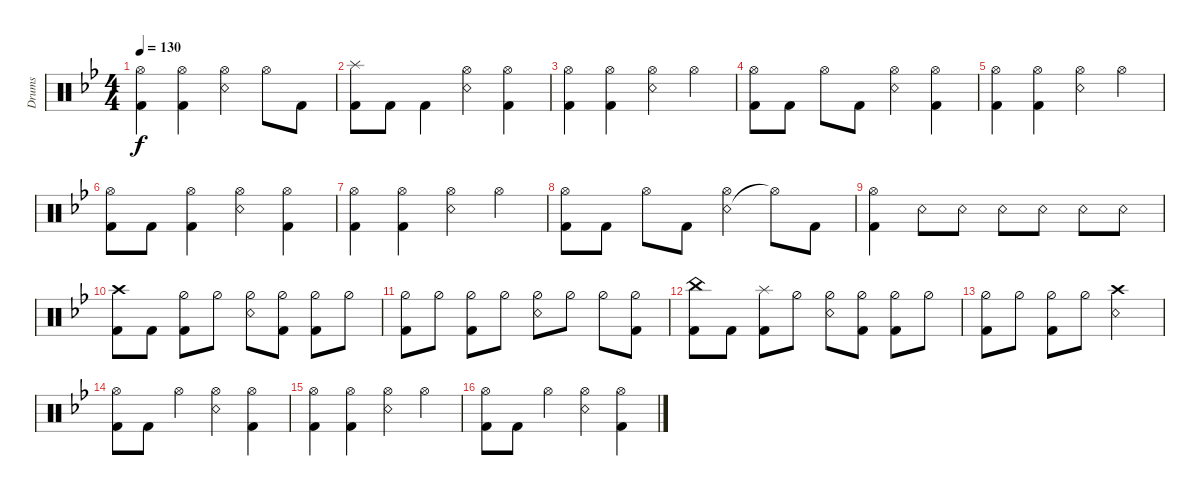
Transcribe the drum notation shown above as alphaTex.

\bracketExtendMode groupsimilarinstruments
\otherSystemsTrackNameOrientation horizontal
\track ("Schlagzeug" "Drums") {instrument percussion}
\staff {score}
\articulation defaults
\ts (4 4)
\tempo 130
\clef neutral
\ks bb
("Kick (hit) 2"{acc forcenatural} "Hi-Hat (open)"{acc forcenatural}).4{dy f beam Down} ("Kick (hit) 2"{acc forcenatural} "Hi-Hat (open)"{acc forcenatural}).4{beam Down} ("Snare (rim shot)"{acc forcenatural} "Hi-Hat (open)"{acc forcenatural}).4{beam Down} "Hi-Hat (open)"{acc forcenatural}.8{beam Down} "Kick (hit) 2"{acc forcenatural}.8{beam Down} |
("Kick (hit) 2"{acc forcenatural} "Splash (hit)"{acc forcenatural}).8{beam Down} "Kick (hit) 2"{acc forcenatural}.8{beam Down} "Kick (hit) 2"{acc forcenatural}.4{beam Down} ("Snare (rim shot)"{acc forcenatural} "Hi-Hat (open)"{acc forcenatural}).4{beam Down} ("Kick (hit) 2"{acc forcenatural} "Hi-Hat (open)"{acc forcenatural}).4{beam Down} |
("Kick (hit) 2"{acc forcenatural} "Hi-Hat (open)"{acc forcenatural}).4{beam Down} ("Kick (hit) 2"{acc forcenatural} "Hi-Hat (open)"{acc forcenatural}).4{beam Down} ("Snare (rim shot)"{acc forcenatural} "Hi-Hat (open)"{acc forcenatural}).4{beam Down} "Hi-Hat (open)"{acc forcenatural}.4{beam Down} |
("Kick (hit) 2"{acc forcenatural} "Hi-Hat (open)"{acc forcenatural}).8{beam Down} "Kick (hit) 2"{acc forcenatural}.8{beam Down} "Hi-Hat (open)"{acc forcenatural}.8{beam Down} "Kick (hit) 2"{acc forcenatural}.8{beam Down} ("Snare (rim shot)"{acc forcenatural} "Hi-Hat (open)"{acc forcenatural}).4{beam Down} ("Kick (hit) 2"{acc forcenatural} "Hi-Hat (open)"{acc forcenatural}).4{beam Down} |
("Kick (hit) 2"{acc forcenatural} "Hi-Hat (open)"{acc forcenatural}).4{beam Down} ("Kick (hit) 2"{acc forcenatural} "Hi-Hat (open)"{acc forcenatural}).4{beam Down} ("Snare (rim shot)"{acc forcenatural} "Hi-Hat (open)"{acc forcenatural}).4{beam Down} "Hi-Hat (open)"{acc forcenatural}.4{beam Down} |
("Kick (hit) 2"{acc forcenatural} "Hi-Hat (open)"{acc forcenatural}).8{beam Down} "Kick (hit) 2"{acc forcenatural}.8{beam Down} ("Kick (hit) 2"{acc forcenatural} "Hi-Hat (open)"{acc forcenatural}).4{beam Down} ("Snare (rim shot)"{acc forcenatural} "Hi-Hat (open)"{acc forcenatural}).4{beam Down} ("Kick (hit) 2"{acc forcenatural} "Hi-Hat (open)"{acc forcenatural}).4{beam Down} |
("Kick (hit) 2"{acc forcenatural} "Hi-Hat (open)"{acc forcenatural}).4{beam Down} ("Kick (hit) 2"{acc forcenatural} "Hi-Hat (open)"{acc forcenatural}).4{beam Down} ("Snare (rim shot)"{acc forcenatural} "Hi-Hat (open)"{acc forcenatural}).4{beam Down} "Hi-Hat (open)"{acc forcenatural}.4{beam Down} |
("Kick (hit) 2"{acc forcenatural} "Hi-Hat (open)"{acc forcenatural}).8{beam Down} "Kick (hit) 2"{acc forcenatural}.8{beam Down} "Hi-Hat (open)"{acc forcenatural}.8{beam Down} "Kick (hit) 2"{acc forcenatural}.8{beam Down} ("Snare (rim shot)"{acc forcenatural} "Hi-Hat (open)"{acc forcenatural}).4{beam Down} "Hi-Hat (open)"{t acc forcenatural}.8{beam Down} "Kick (hit) 2"{acc forcenatural}.8{beam Down} |
("Kick (hit) 2"{acc forcenatural} "Hi-Hat (open)"{acc forcenatural}).4{beam Down} "Snare (rim shot)"{acc forcenatural}.8{beam Down} "Snare (rim shot)"{acc forcenatural}.8{beam Down} "Snare (rim shot)"{acc forcenatural}.8{beam Down} "Snare (rim shot)"{acc forcenatural}.8{beam Down} "Snare (rim shot)"{acc forcenatural}.8{beam Down} "Snare (rim shot)"{acc forcenatural}.8{beam Down} |
("Kick (hit) 2"{acc forcenatural} "Crash high (hit)"{acc forcenatural}).8{beam Down} "Kick (hit) 2"{acc forcenatural}.8{beam Down} ("Kick (hit) 2"{acc forcenatural} "Hi-Hat (half)"{acc forcenatural}).8{beam Down} "Hi-Hat (half)"{acc forcenatural}.8{beam Down} ("Snare (rim shot)"{acc forcenatural} "Hi-Hat (half)"{acc forcenatural}).8{beam Down} ("Kick (hit) 2"{acc forcenatural} "Hi-Hat (half)"{acc forcenatural}).8{beam Down} ("Kick (hit) 2"{acc forcenatural} "Hi-Hat (half)"{acc forcenatural}).8{beam Down} "Hi-Hat (half)"{acc forcenatural}.8{beam Down} |
("Kick (hit) 2"{acc forcenatural} "Hi-Hat (half)"{acc forcenatural}).8{beam Down} "Hi-Hat (half)"{acc forcenatural}.8{beam Down} ("Kick (hit) 2"{acc forcenatural} "Hi-Hat (half)"{acc forcenatural}).8{beam Down} "Hi-Hat (half)"{acc forcenatural}.8{beam Down} ("Snare (rim shot)"{acc forcenatural} "Hi-Hat (half)"{acc forcenatural}).8{beam Down} "Hi-Hat (half)"{acc forcenatural}.8{beam Down} "Hi-Hat (half)"{acc forcenatural}.8{beam Down} ("Kick (hit) 2"{acc forcenatural} "Hi-Hat (half)"{acc forcenatural}).8{beam Down} |
("Kick (hit) 2"{acc forcenatural} "China (hit)"{acc forcenatural}).8{beam Down} "Kick (hit) 2"{acc forcenatural}.8{beam Down} ("Kick (hit) 2"{acc forcenatural} "Splash (hit)"{acc forcenatural}).8{beam Down} "Hi-Hat (half)"{acc forcenatural}.8{beam Down} ("Snare (rim shot)"{acc forcenatural} "Hi-Hat (half)"{acc forcenatural}).8{beam Down} ("Kick (hit) 2"{acc forcenatural} "Hi-Hat (half)"{acc forcenatural}).8{beam Down} ("Kick (hit) 2"{acc forcenatural} "Hi-Hat (half)"{acc forcenatural}).8{beam Down} "Hi-Hat (half)"{acc forcenatural}.8{beam Down} |
("Kick (hit) 2"{acc forcenatural} "Hi-Hat (half)"{acc forcenatural}).8{beam Down} "Hi-Hat (half)"{acc forcenatural}.8{beam Down} ("Kick (hit) 2"{acc forcenatural} "Hi-Hat (half)"{acc forcenatural}).8{beam Down} "Hi-Hat (half)"{acc forcenatural}.8{beam Down} ("Snare (rim shot)"{acc forcenatural} "Crash high (hit)"{acc forcenatural}).2{beam Down} |
("Kick (hit) 2"{acc forcenatural} "Hi-Hat (open)"{acc forcenatural}).8{beam Down} "Kick (hit) 2"{acc forcenatural}.8{beam Down} "Hi-Hat (open)"{acc forcenatural}.4{beam Down} ("Snare (rim shot)"{acc forcenatural} "Hi-Hat (open)"{acc forcenatural}).4{beam Down} ("Kick (hit) 2"{acc forcenatural} "Hi-Hat (open)"{acc forcenatural}).4{beam Down} |
("Kick (hit) 2"{acc forcenatural} "Hi-Hat (open)"{acc forcenatural}).4{beam Down} ("Kick (hit) 2"{acc forcenatural} "Hi-Hat (open)"{acc forcenatural}).4{beam Down} ("Snare (rim shot)"{acc forcenatural} "Hi-Hat (open)"{acc forcenatural}).4{beam Down} "Hi-Hat (open)"{acc forcenatural}.4{beam Down} |
("Kick (hit) 2"{acc forcenatural} "Hi-Hat (open)"{acc forcenatural}).8{beam Down} "Kick (hit) 2"{acc forcenatural}.8{beam Down} "Hi-Hat (open)"{acc forcenatural}.4{beam Down} ("Snare (rim shot)"{acc forcenatural} "Hi-Hat (open)"{acc forcenatural}).4{beam Down} ("Kick (hit) 2"{acc forcenatural} "Hi-Hat (open)"{acc forcenatural}).4{beam Down}
